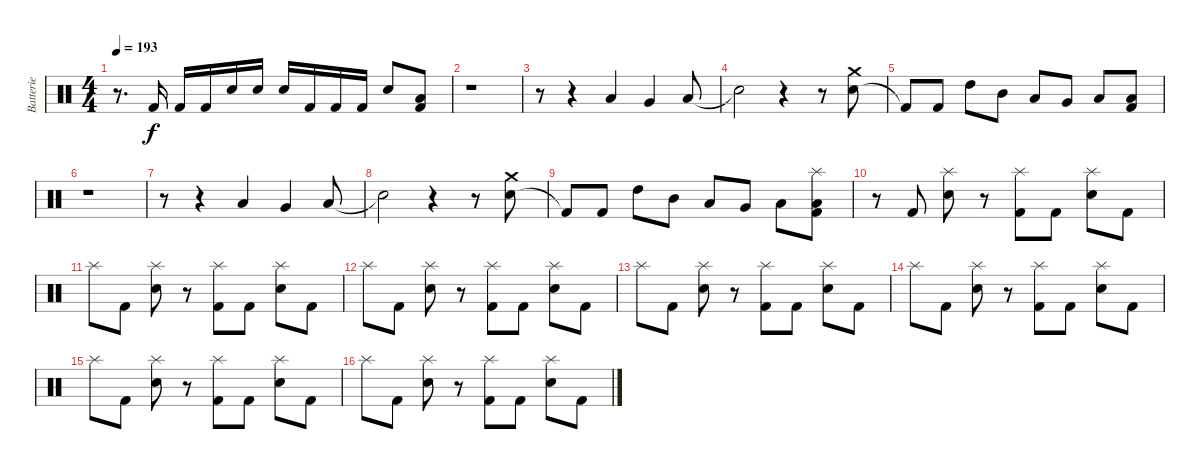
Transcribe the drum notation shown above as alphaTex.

\track ("Batterie" "Batterie") {instrument percussion}
\staff {score}
\articulation defaults
\ts (4 4)
\tempo 193
\clef neutral
\ks c
r.8{d dy f} "Kick (hit) 2".16 "Kick (hit) 2".16 "Kick (hit) 2".16 "Electric Snare (hit)".16 "Electric Snare (hit)".16 "Electric Snare (hit)".16 "Kick (hit) 2".16 "Kick (hit) 2".16 "Kick (hit) 2".16 "Electric Snare (hit)".8 ("Kick (hit) 2" "Low Tom (hit)").8 |
r.1 |
r.8 r.4 "Low Tom (hit)".4 "Very Low Tom (hit)".4 "Low Floor Tom (hit)".8 |
"Snare (hit)"{t}.2 r.4 r.8 ("Electric Snare (hit)" "Crash medium (hit)").8 |
"Kick (hit) 2"{t}.8 "Kick (hit) 2".8 "High Tom (hit)".8 "Mid Tom (hit)".8 "Low Tom (hit)".8 "Very Low Tom (hit)".8 "Low Floor Tom (hit)".8 ("Kick (hit) 2" "Low Floor Tom (hit)").8 |
r.1 |
r.8 r.4 "Low Tom (hit)".4 "Very Low Tom (hit)".4 "Low Floor Tom (hit)".8 |
"Snare (hit)"{t}.2 r.4 r.8 ("Electric Snare (hit)" "Crash medium (hit)").8 |
"Kick (hit) 2"{t}.8 "Kick (hit) 2".8 "High Tom (hit)".8 "Mid Tom (hit)".8 "Low Tom (hit)".8 "Very Low Tom (hit)".8 "Low Floor Tom (hit)".8 ("Kick (hit) 2" "Low Floor Tom (hit)" "Splash (hit)").8 |
r.8 "Kick (hit) 2".8 ("Electric Snare (hit)" "Splash (hit)").8 r.8 ("Kick (hit) 2" "Splash (hit)").8 "Kick (hit) 2".8 ("Electric Snare (hit)" "Splash (hit)").8 "Kick (hit) 2".8 |
"Splash (hit)".8 "Kick (hit) 2".8 ("Electric Snare (hit)" "Splash (hit)").8 r.8 ("Kick (hit) 2" "Splash (hit)").8 "Kick (hit) 2".8 ("Electric Snare (hit)" "Splash (hit)").8 "Kick (hit) 2".8 |
"Splash (hit)".8 "Kick (hit) 2".8 ("Electric Snare (hit)" "Splash (hit)").8 r.8 ("Kick (hit) 2" "Splash (hit)").8 "Kick (hit) 2".8 ("Electric Snare (hit)" "Splash (hit)").8 "Kick (hit) 2".8 |
"Splash (hit)".8 "Kick (hit) 2".8 ("Electric Snare (hit)" "Splash (hit)").8 r.8 ("Kick (hit) 2" "Splash (hit)").8 "Kick (hit) 2".8 ("Electric Snare (hit)" "Splash (hit)").8 "Kick (hit) 2".8 |
"Splash (hit)".8 "Kick (hit) 2".8 ("Electric Snare (hit)" "Splash (hit)").8 r.8 ("Kick (hit) 2" "Splash (hit)").8 "Kick (hit) 2".8 ("Electric Snare (hit)" "Splash (hit)").8 "Kick (hit) 2".8 |
"Splash (hit)".8 "Kick (hit) 2".8 ("Electric Snare (hit)" "Splash (hit)").8 r.8 ("Kick (hit) 2" "Splash (hit)").8 "Kick (hit) 2".8 ("Electric Snare (hit)" "Splash (hit)").8 "Kick (hit) 2".8 |
"Splash (hit)".8 "Kick (hit) 2".8 ("Electric Snare (hit)" "Splash (hit)").8 r.8 ("Kick (hit) 2" "Splash (hit)").8 "Kick (hit) 2".8 ("Electric Snare (hit)" "Splash (hit)").8 "Kick (hit) 2".8
